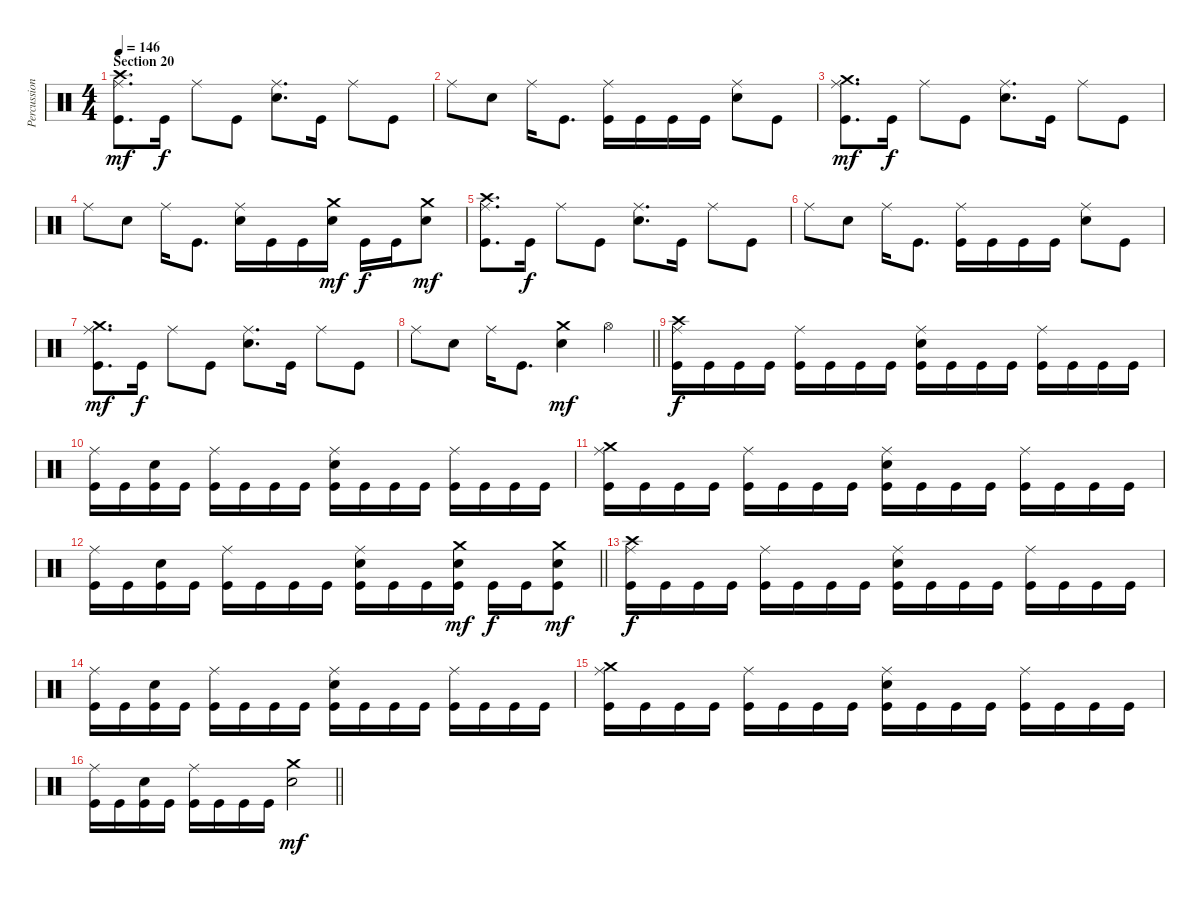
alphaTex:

\track ("Percussion" "Percussion") {instrument percussion}
\staff {score}
\articulation defaults
\ts (4 4)
\section ("" "Section 20")
\tempo 146
\clef neutral
\ks c
("Crash high (hit)" "Ride (middle)" "Kick (hit)").8{d dy mf} "Kick (hit)".16{dy f} "Ride (middle)".8 "Kick (hit)".8 ("Ride (middle)" "Electric Snare (hit)").8{d} "Kick (hit)".16 "Ride (middle)".8 "Kick (hit)".8 |
"Ride (middle)".8 "Electric Snare (hit)".8 "Ride (middle)".16 "Kick (hit)".8{d} ("Ride (middle)" "Kick (hit)").16 "Kick (hit)".16 "Kick (hit)".16 "Kick (hit)".16 ("Ride (middle)" "Electric Snare (hit)").8 "Kick (hit)".8 |
("Crash medium (hit)" "Ride (middle)" "Kick (hit)").8{d dy mf} "Kick (hit)".16{dy f} "Ride (middle)".8 "Kick (hit)".8 ("Ride (middle)" "Electric Snare (hit)").8{d} "Kick (hit)".16 "Ride (middle)".8 "Kick (hit)".8 |
"Ride (middle)".8 "Electric Snare (hit)".8 "Ride (middle)".16 "Kick (hit)".8{d} ("Ride (middle)" "Electric Snare (hit)").16 "Kick (hit)".16 "Kick (hit)".16 ("Crash medium (hit)" "Electric Snare (hit)").16{dy mf} "Kick (hit)".16{dy f} "Kick (hit)".16 ("Crash medium (hit)" "Electric Snare (hit)").8{dy mf} |
("Crash high (hit)" "Ride (middle)" "Kick (hit)").8{d} "Kick (hit)".16{dy f} "Ride (middle)".8 "Kick (hit)".8 ("Ride (middle)" "Electric Snare (hit)").8{d} "Kick (hit)".16 "Ride (middle)".8 "Kick (hit)".8 |
"Ride (middle)".8 "Electric Snare (hit)".8 "Ride (middle)".16 "Kick (hit)".8{d} ("Ride (middle)" "Kick (hit)").16 "Kick (hit)".16 "Kick (hit)".16 "Kick (hit)".16 ("Ride (middle)" "Electric Snare (hit)").8 "Kick (hit)".8 |
("Crash medium (hit)" "Ride (middle)" "Kick (hit)").8{d dy mf} "Kick (hit)".16{dy f} "Ride (middle)".8 "Kick (hit)".8 ("Ride (middle)" "Electric Snare (hit)").8{d} "Kick (hit)".16 "Ride (middle)".8 "Kick (hit)".8 |
\barLineRight lightlight "Ride (middle)".8 "Electric Snare (hit)".8 "Ride (middle)".16 "Kick (hit)".8{d}
("Crash medium (hit)" "Electric Snare (hit)").4{dy mf} "Hi-Hat (open)".4 |
("Crash high (hit)" "Ride (middle)" "Kick (hit)").16{dy f} "Kick (hit)".16 "Kick (hit)".16 "Kick (hit)".16 ("Ride (middle)" "Kick (hit)").16 "Kick (hit)".16 "Kick (hit)".16 "Kick (hit)".16 ("Ride (middle)" "Electric Snare (hit)" "Kick (hit)").16 "Kick (hit)".16 "Kick (hit)".16 "Kick (hit)".16 ("Ride (middle)" "Kick (hit)").16 "Kick (hit)".16 "Kick (hit)".16 "Kick (hit)".16 |
("Ride (middle)" "Kick (hit)").16 "Kick (hit)".16 ("Electric Snare (hit)" "Kick (hit)").16 "Kick (hit)".16 ("Ride (middle)" "Kick (hit)").16 "Kick (hit)".16 "Kick (hit)".16 "Kick (hit)".16 ("Ride (middle)" "Electric Snare (hit)" "Kick (hit)").16 "Kick (hit)".16 "Kick (hit)".16 "Kick (hit)".16 ("Ride (middle)" "Kick (hit)").16 "Kick (hit)".16 "Kick (hit)".16 "Kick (hit)".16 |
("Crash medium (hit)" "Ride (middle)" "Kick (hit)").16 "Kick (hit)".16 "Kick (hit)".16 "Kick (hit)".16 ("Ride (middle)" "Kick (hit)").16 "Kick (hit)".16 "Kick (hit)".16 "Kick (hit)".16 ("Ride (middle)" "Electric Snare (hit)" "Kick (hit)").16 "Kick (hit)".16 "Kick (hit)".16 "Kick (hit)".16 ("Ride (middle)" "Kick (hit)").16 "Kick (hit)".16 "Kick (hit)".16 "Kick (hit)".16 |
\barLineRight lightlight
("Ride (middle)" "Kick (hit)").16 "Kick (hit)".16 ("Electric Snare (hit)" "Kick (hit)").16 "Kick (hit)".16 ("Ride (middle)" "Kick (hit)").16 "Kick (hit)".16 "Kick (hit)".16 "Kick (hit)".16 ("Ride (middle)" "Electric Snare (hit)" "Kick (hit)").16 "Kick (hit)".16 "Kick (hit)".16 ("Crash medium (hit)" "Electric Snare (hit)" "Kick (hit)").16{dy mf} "Kick (hit)".16{dy f} "Kick (hit)".16 ("Crash medium (hit)" "Electric Snare (hit)" "Kick (hit)").8{dy mf} |
("Crash high (hit)" "Ride (middle)" "Kick (hit)").16{dy f} "Kick (hit)".16 "Kick (hit)".16 "Kick (hit)".16 ("Ride (middle)" "Kick (hit)").16 "Kick (hit)".16 "Kick (hit)".16 "Kick (hit)".16 ("Ride (middle)" "Electric Snare (hit)" "Kick (hit)").16 "Kick (hit)".16 "Kick (hit)".16 "Kick (hit)".16 ("Ride (middle)" "Kick (hit)").16 "Kick (hit)".16 "Kick (hit)".16 "Kick (hit)".16 |
("Ride (middle)" "Kick (hit)").16 "Kick (hit)".16 ("Electric Snare (hit)" "Kick (hit)").16 "Kick (hit)".16 ("Ride (middle)" "Kick (hit)").16 "Kick (hit)".16 "Kick (hit)".16 "Kick (hit)".16 ("Ride (middle)" "Electric Snare (hit)" "Kick (hit)").16 "Kick (hit)".16 "Kick (hit)".16 "Kick (hit)".16 ("Ride (middle)" "Kick (hit)").16 "Kick (hit)".16 "Kick (hit)".16 "Kick (hit)".16 |
("Crash medium (hit)" "Ride (middle)" "Kick (hit)").16 "Kick (hit)".16 "Kick (hit)".16 "Kick (hit)".16 ("Ride (middle)" "Kick (hit)").16 "Kick (hit)".16 "Kick (hit)".16 "Kick (hit)".16 ("Ride (middle)" "Electric Snare (hit)" "Kick (hit)").16 "Kick (hit)".16 "Kick (hit)".16 "Kick (hit)".16 ("Ride (middle)" "Kick (hit)").16 "Kick (hit)".16 "Kick (hit)".16 "Kick (hit)".16 |
\barLineRight lightlight
("Ride (middle)" "Kick (hit)").16 "Kick (hit)".16 ("Electric Snare (hit)" "Kick (hit)").16 "Kick (hit)".16 ("Ride (middle)" "Kick (hit)").16 "Kick (hit)".16 "Kick (hit)".16 "Kick (hit)".16 ("Crash medium (hit)" "Electric Snare (hit)").2{dy mf}
